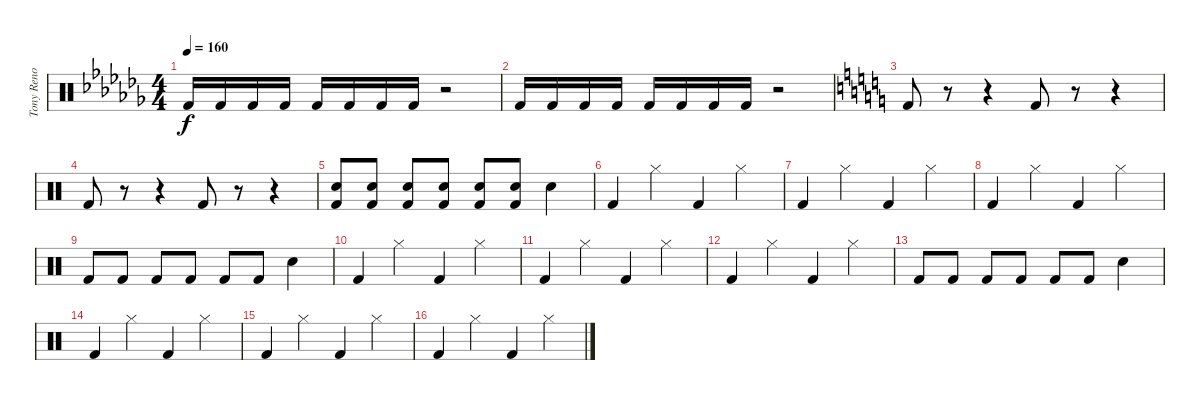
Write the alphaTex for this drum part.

\track ("Tony Reno" "Tony Reno") {instrument percussion}
\staff {score}
\articulation defaults
\ts (4 4)
\tempo 160
\clef neutral
\ks cb "Kick (hit) 2".16{dy f} "Kick (hit) 2".16 "Kick (hit) 2".16 "Kick (hit) 2".16 "Kick (hit) 2".16 "Kick (hit) 2".16 "Kick (hit) 2".16 "Kick (hit) 2".16
r.2 |
"Kick (hit) 2".16 "Kick (hit) 2".16 "Kick (hit) 2".16 "Kick (hit) 2".16 "Kick (hit) 2".16 "Kick (hit) 2".16 "Kick (hit) 2".16 "Kick (hit) 2".16 r.2 |
\ks c "Kick (hit) 2".8
r.8 r.4 "Kick (hit) 2".8 r.8 r.4 |
"Kick (hit) 2".8 r.8 r.4 "Kick (hit) 2".8 r.8 r.4 |
("Snare (hit) 2" "Kick (hit) 2").8 ("Snare (hit) 2" "Kick (hit) 2").8 ("Snare (hit) 2" "Kick (hit) 2").8 ("Snare (hit) 2" "Kick (hit) 2").8 ("Snare (hit) 2" "Kick (hit) 2").8 ("Snare (hit) 2" "Kick (hit) 2").8 "Snare (hit) 2".4 |
"Kick (hit) 2".4 "Hi-Hat (closed)".4 "Kick (hit) 2".4 "Hi-Hat (closed)".4 |
"Kick (hit) 2".4 "Hi-Hat (closed)".4 "Kick (hit) 2".4 "Hi-Hat (closed)".4 |
"Kick (hit) 2".4 "Hi-Hat (closed)".4 "Kick (hit) 2".4 "Hi-Hat (closed)".4 |
"Kick (hit) 2".8 "Kick (hit) 2".8 "Kick (hit) 2".8 "Kick (hit) 2".8 "Kick (hit) 2".8 "Kick (hit) 2".8 "Snare (hit) 2".4 |
"Kick (hit) 2".4 "Hi-Hat (closed)".4 "Kick (hit) 2".4 "Hi-Hat (closed)".4 |
"Kick (hit) 2".4 "Hi-Hat (closed)".4 "Kick (hit) 2".4 "Hi-Hat (closed)".4 |
"Kick (hit) 2".4 "Hi-Hat (closed)".4 "Kick (hit) 2".4 "Hi-Hat (closed)".4 |
"Kick (hit) 2".8 "Kick (hit) 2".8 "Kick (hit) 2".8 "Kick (hit) 2".8 "Kick (hit) 2".8 "Kick (hit) 2".8 "Snare (hit) 2".4 |
"Kick (hit) 2".4 "Hi-Hat (closed)".4 "Kick (hit) 2".4 "Hi-Hat (closed)".4 |
"Kick (hit) 2".4 "Hi-Hat (closed)".4 "Kick (hit) 2".4 "Hi-Hat (closed)".4 |
"Kick (hit) 2".4 "Hi-Hat (closed)".4 "Kick (hit) 2".4 "Hi-Hat (closed)".4
